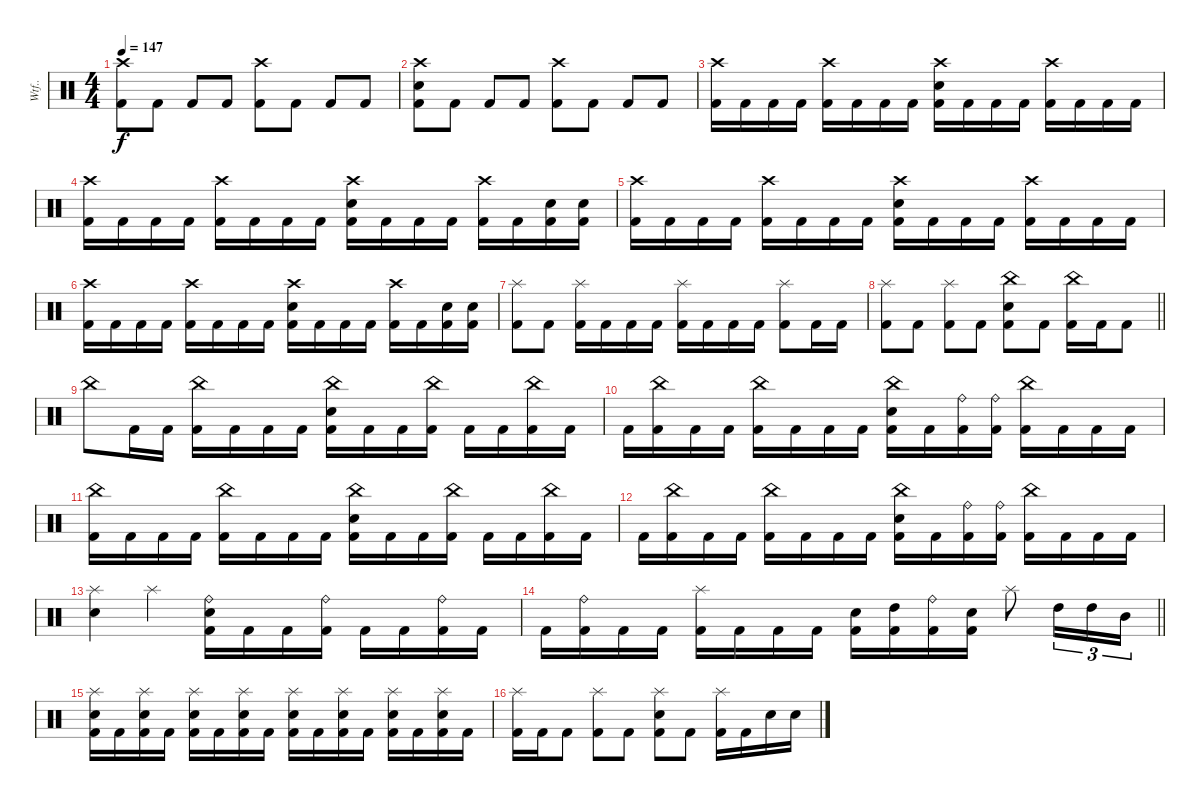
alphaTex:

\track ("Wtf.." "Wtf..") {instrument percussion}
\staff {score}
\articulation defaults
\ts (4 4)
\tempo 147
\clef neutral
\ks c
("Crash high (hit)" "Kick (hit) 2").8{dy f} "Kick (hit) 2".8 "Kick (hit) 2".8 "Kick (hit) 2".8 ("Crash high (hit)" "Kick (hit) 2").8 "Kick (hit) 2".8 "Kick (hit) 2".8 "Kick (hit) 2".8 |
("Crash high (hit)" "Electric Snare (hit)" "Kick (hit) 2").8 "Kick (hit) 2".8 "Kick (hit) 2".8 "Kick (hit) 2".8 ("Crash high (hit)" "Kick (hit) 2").8 "Kick (hit) 2".8 "Kick (hit) 2".8 "Kick (hit) 2".8 |
("Crash high (hit)" "Kick (hit) 2").16 "Kick (hit) 2".16 "Kick (hit) 2".16 "Kick (hit) 2".16 ("Crash high (hit)" "Kick (hit) 2").16 "Kick (hit) 2".16 "Kick (hit) 2".16 "Kick (hit) 2".16 ("Crash high (hit)" "Electric Snare (hit)" "Kick (hit) 2").16 "Kick (hit) 2".16 "Kick (hit) 2".16 "Kick (hit) 2".16 ("Crash high (hit)" "Kick (hit) 2").16 "Kick (hit) 2".16 "Kick (hit) 2".16 "Kick (hit) 2".16 |
("Crash high (hit)" "Kick (hit) 2").16 "Kick (hit) 2".16 "Kick (hit) 2".16 "Kick (hit) 2".16 ("Crash high (hit)" "Kick (hit) 2").16 "Kick (hit) 2".16 "Kick (hit) 2".16 "Kick (hit) 2".16 ("Crash high (hit)" "Electric Snare (hit)" "Kick (hit) 2").16 "Kick (hit) 2".16 "Kick (hit) 2".16 "Kick (hit) 2".16 ("Crash high (hit)" "Kick (hit) 2").16 "Kick (hit) 2".16 ("Electric Snare (hit)" "Kick (hit) 2").16 ("Electric Snare (hit)" "Kick (hit) 2").16 |
("Crash high (hit)" "Kick (hit) 2").16 "Kick (hit) 2".16 "Kick (hit) 2".16 "Kick (hit) 2".16 ("Crash high (hit)" "Kick (hit) 2").16 "Kick (hit) 2".16 "Kick (hit) 2".16 "Kick (hit) 2".16 ("Crash high (hit)" "Electric Snare (hit)" "Kick (hit) 2").16 "Kick (hit) 2".16 "Kick (hit) 2".16 "Kick (hit) 2".16 ("Crash high (hit)" "Kick (hit) 2").16 "Kick (hit) 2".16 "Kick (hit) 2".16 "Kick (hit) 2".16 |
("Crash high (hit)" "Kick (hit) 2").16 "Kick (hit) 2".16 "Kick (hit) 2".16 "Kick (hit) 2".16 ("Crash high (hit)" "Kick (hit) 2").16 "Kick (hit) 2".16 "Kick (hit) 2".16 "Kick (hit) 2".16 ("Crash high (hit)" "Electric Snare (hit)" "Kick (hit) 2").16 "Kick (hit) 2".16 "Kick (hit) 2".16 "Kick (hit) 2".16 ("Crash high (hit)" "Kick (hit) 2").16 "Kick (hit) 2".16 ("Electric Snare (hit)" "Kick (hit) 2").16 ("Electric Snare (hit)" "Kick (hit) 2").16 |
("Splash (hit)" "Kick (hit) 2").8 "Kick (hit) 2".8 ("Splash (hit)" "Kick (hit) 2").16 "Kick (hit) 2".16 "Kick (hit) 2".16 "Kick (hit) 2".16 ("Splash (hit)" "Kick (hit) 2").16 "Kick (hit) 2".16 "Kick (hit) 2".16 "Kick (hit) 2".16 ("Splash (hit)" "Kick (hit) 2").8 "Kick (hit) 2".16 "Kick (hit) 2".16 |
\barLineRight lightlight
("Splash (hit)" "Kick (hit) 2").8 "Kick (hit) 2".8 ("Splash (hit)" "Kick (hit) 2").8 "Kick (hit) 2".8 ("China (hit)" "Electric Snare (hit)" "Kick (hit) 2").8 "Kick (hit) 2".8 ("China (hit)" "Kick (hit) 2").16 "Kick (hit) 2".16 "Kick (hit) 2".8 |
\section ("" "")
"China (hit)".8 "Kick (hit) 2".16 "Kick (hit) 2".16 ("China (hit)" "Kick (hit) 2").16 "Kick (hit) 2".16 "Kick (hit) 2".16 "Kick (hit) 2".16 ("China (hit)" "Electric Snare (hit)" "Kick (hit) 2").16 "Kick (hit) 2".16 "Kick (hit) 2".16 ("China (hit)" "Kick (hit) 2").16 "Kick (hit) 2".16 "Kick (hit) 2".16 ("China (hit)" "Kick (hit) 2").16 "Kick (hit) 2".16 |
"Kick (hit) 2".16 ("China (hit)" "Kick (hit) 2").16 "Kick (hit) 2".16 "Kick (hit) 2".16 ("China (hit)" "Kick (hit) 2").16 "Kick (hit) 2".16 "Kick (hit) 2".16 "Kick (hit) 2".16 ("China (hit)" "Electric Snare (hit)" "Kick (hit) 2").16 "Kick (hit) 2".16 ("Ride (bell)" "Kick (hit) 2").16 ("Ride (bell)" "Kick (hit) 2").16 ("China (hit)" "Kick (hit) 2").16 "Kick (hit) 2".16 "Kick (hit) 2".16 "Kick (hit) 2".16 |
("China (hit)" "Kick (hit) 2").16 "Kick (hit) 2".16 "Kick (hit) 2".16 "Kick (hit) 2".16 ("China (hit)" "Kick (hit) 2").16 "Kick (hit) 2".16 "Kick (hit) 2".16 "Kick (hit) 2".16 ("China (hit)" "Electric Snare (hit)" "Kick (hit) 2").16 "Kick (hit) 2".16 "Kick (hit) 2".16 ("China (hit)" "Kick (hit) 2").16 "Kick (hit) 2".16 "Kick (hit) 2".16 ("China (hit)" "Kick (hit) 2").16 "Kick (hit) 2".16 |
"Kick (hit) 2".16 ("China (hit)" "Kick (hit) 2").16 "Kick (hit) 2".16 "Kick (hit) 2".16 ("China (hit)" "Kick (hit) 2").16 "Kick (hit) 2".16 "Kick (hit) 2".16 "Kick (hit) 2".16 ("China (hit)" "Electric Snare (hit)" "Kick (hit) 2").16 "Kick (hit) 2".16 ("Ride (bell)" "Kick (hit) 2").16 ("Ride (bell)" "Kick (hit) 2").16 ("China (hit)" "Kick (hit) 2").16 "Kick (hit) 2".16 "Kick (hit) 2".16 "Kick (hit) 2".16 |
("Splash (hit)" "Electric Snare (hit)").4 "Splash (hit)".4 ("Ride (bell)" "Electric Snare (hit)" "Kick (hit) 2").16 "Kick (hit) 2".16 "Kick (hit) 2".16 ("Ride (bell)" "Kick (hit) 2").16 "Kick (hit) 2".16 "Kick (hit) 2".16 ("Ride (bell)" "Kick (hit) 2").16 "Kick (hit) 2".16 |
\barLineRight lightlight "Kick (hit) 2".16
("Ride (bell)" "Kick (hit) 2").16 "Kick (hit) 2".16 "Kick (hit) 2".16 ("Splash (hit)" "Kick (hit) 2").16 "Kick (hit) 2".16 "Kick (hit) 2".16 "Kick (hit) 2".16 ("Electric Snare (hit)" "Kick (hit) 2").16 ("High Tom (hit)" "Kick (hit) 2").16 ("Ride (bell)" "Kick (hit) 2").16 ("Electric Snare (hit)" "Kick (hit) 2").16 "Splash (hit)".8 "High Tom (hit)".16{tu (3 2)} "High Tom (hit)".16{tu (3 2)} "Mid Tom (hit)".16{tu (3 2)} |
\section ("" "")
("Splash (hit)" "Electric Snare (hit)" "Kick (hit) 2").16 "Kick (hit) 2".16 ("Splash (hit)" "Electric Snare (hit)" "Kick (hit) 2").16 "Kick (hit) 2".16 ("Splash (hit)" "Electric Snare (hit)" "Kick (hit) 2").16 "Kick (hit) 2".16 ("Splash (hit)" "Electric Snare (hit)" "Kick (hit) 2").16 "Kick (hit) 2".16 ("Splash (hit)" "Electric Snare (hit)" "Kick (hit) 2").16 "Kick (hit) 2".16 ("Splash (hit)" "Electric Snare (hit)" "Kick (hit) 2").16 "Kick (hit) 2".16 ("Splash (hit)" "Electric Snare (hit)" "Kick (hit) 2").16 "Kick (hit) 2".16 ("Splash (hit)" "Electric Snare (hit)" "Kick (hit) 2").16 "Kick (hit) 2".16 |
("Splash (hit)" "Kick (hit) 2").16 "Kick (hit) 2".16 "Kick (hit) 2".8 ("Splash (hit)" "Kick (hit) 2").8 "Kick (hit) 2".8 ("Splash (hit)" "Electric Snare (hit)" "Kick (hit) 2").8 "Kick (hit) 2".8 ("Splash (hit)" "Kick (hit) 2").16 "Kick (hit) 2".16 "Electric Snare (hit)".16 "Electric Snare (hit)".16
